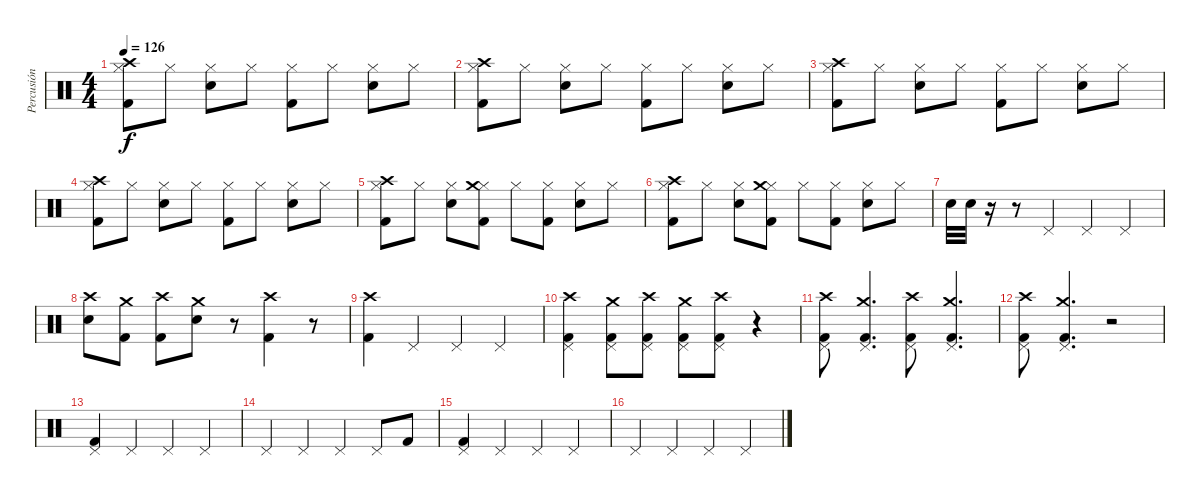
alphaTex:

\track ("Percusión" "Percusión") {instrument percussion}
\staff {score}
\articulation defaults
\ts (4 4)
\tempo 126
\clef neutral
\ks c
("Hi-Hat (closed)" "Crash high (hit)" "Kick (hit) 2").8{dy f} "Hi-Hat (closed)".8 ("Hi-Hat (closed)" "Snare (hit) 2").8 "Hi-Hat (closed)".8 ("Hi-Hat (closed)" "Kick (hit) 2").8 "Hi-Hat (closed)".8 ("Hi-Hat (closed)" "Snare (hit) 2").8 "Hi-Hat (closed)".8 |
("Hi-Hat (closed)" "Crash high (hit)" "Kick (hit) 2").8 "Hi-Hat (closed)".8 ("Hi-Hat (closed)" "Snare (hit) 2").8 "Hi-Hat (closed)".8 ("Hi-Hat (closed)" "Kick (hit) 2").8 "Hi-Hat (closed)".8 ("Hi-Hat (closed)" "Snare (hit) 2").8 "Hi-Hat (closed)".8 |
("Hi-Hat (closed)" "Crash high (hit)" "Kick (hit) 2").8 "Hi-Hat (closed)".8 ("Hi-Hat (closed)" "Snare (hit) 2").8 "Hi-Hat (closed)".8 ("Hi-Hat (closed)" "Kick (hit) 2").8 "Hi-Hat (closed)".8 ("Hi-Hat (closed)" "Snare (hit) 2").8 "Hi-Hat (closed)".8 |
("Hi-Hat (closed)" "Crash high (hit)" "Kick (hit) 2").8 "Hi-Hat (closed)".8 ("Hi-Hat (closed)" "Snare (hit) 2").8 "Hi-Hat (closed)".8 ("Hi-Hat (closed)" "Kick (hit) 2").8 "Hi-Hat (closed)".8 ("Hi-Hat (closed)" "Snare (hit) 2").8 "Hi-Hat (closed)".8 |
("Hi-Hat (closed)" "Crash high (hit)" "Kick (hit) 2").8 "Hi-Hat (closed)".8 ("Hi-Hat (closed)" "Snare (hit) 2").8 ("Hi-Hat (closed)" "Crash medium (hit)" "Kick (hit) 2").8 "Hi-Hat (closed)".8 ("Hi-Hat (closed)" "Kick (hit) 2").8 ("Hi-Hat (closed)" "Snare (hit) 2").8 "Hi-Hat (closed)".8 |
("Hi-Hat (closed)" "Crash high (hit)" "Kick (hit) 2").8 "Hi-Hat (closed)".8 ("Hi-Hat (closed)" "Snare (hit) 2").8 ("Hi-Hat (closed)" "Crash medium (hit)" "Kick (hit) 2").8 "Hi-Hat (closed)".8 ("Hi-Hat (closed)" "Kick (hit) 2").8 ("Hi-Hat (closed)" "Snare (hit) 2").8 "Hi-Hat (closed)".8 |
"Snare (hit) 2".32 "Snare (hit) 2".32 r.16 r.8 "Pedal Hi-Hat (hit)".4 "Pedal Hi-Hat (hit)".4 "Pedal Hi-Hat (hit)".4 |
("Crash high (hit)" "Snare (hit) 2").8 ("Crash medium (hit)" "Kick (hit) 2").8 ("Crash high (hit)" "Kick (hit) 2").8 ("Crash medium (hit)" "Snare (hit) 2").8 r.8 ("Crash high (hit)" "Kick (hit) 2").4 r.8 |
("Crash high (hit)" "Kick (hit) 2").4 "Pedal Hi-Hat (hit)".4 "Pedal Hi-Hat (hit)".4 "Pedal Hi-Hat (hit)".4 |
("Pedal Hi-Hat (hit)" "Crash high (hit)" "Kick (hit) 2").4 ("Pedal Hi-Hat (hit)" "Crash medium (hit)" "Kick (hit) 2").8 ("Pedal Hi-Hat (hit)" "Crash high (hit)" "Kick (hit) 2").8 ("Pedal Hi-Hat (hit)" "Crash medium (hit)" "Kick (hit) 2").8 ("Pedal Hi-Hat (hit)" "Crash high (hit)" "Kick (hit) 2").8 r.4 |
("Pedal Hi-Hat (hit)" "Crash high (hit)" "Kick (hit) 2").8 ("Pedal Hi-Hat (hit)" "Crash medium (hit)" "Kick (hit) 2").4{d} ("Pedal Hi-Hat (hit)" "Crash high (hit)" "Kick (hit) 2").8 ("Pedal Hi-Hat (hit)" "Crash medium (hit)" "Kick (hit) 2").4{d} |
("Pedal Hi-Hat (hit)" "Crash high (hit)" "Kick (hit) 2").8 ("Pedal Hi-Hat (hit)" "Crash medium (hit)" "Kick (hit) 2").4{d} r.2 |
("Pedal Hi-Hat (hit)" "Kick (hit) 2").4 "Pedal Hi-Hat (hit)".4 "Pedal Hi-Hat (hit)".4 "Pedal Hi-Hat (hit)".4 |
"Pedal Hi-Hat (hit)".4 "Pedal Hi-Hat (hit)".4 "Pedal Hi-Hat (hit)".4 "Pedal Hi-Hat (hit)".8 "Kick (hit) 2".8 |
("Pedal Hi-Hat (hit)" "Kick (hit) 2").4 "Pedal Hi-Hat (hit)".4 "Pedal Hi-Hat (hit)".4 "Pedal Hi-Hat (hit)".4 |
"Pedal Hi-Hat (hit)".4 "Pedal Hi-Hat (hit)".4 "Pedal Hi-Hat (hit)".4 "Pedal Hi-Hat (hit)".4
